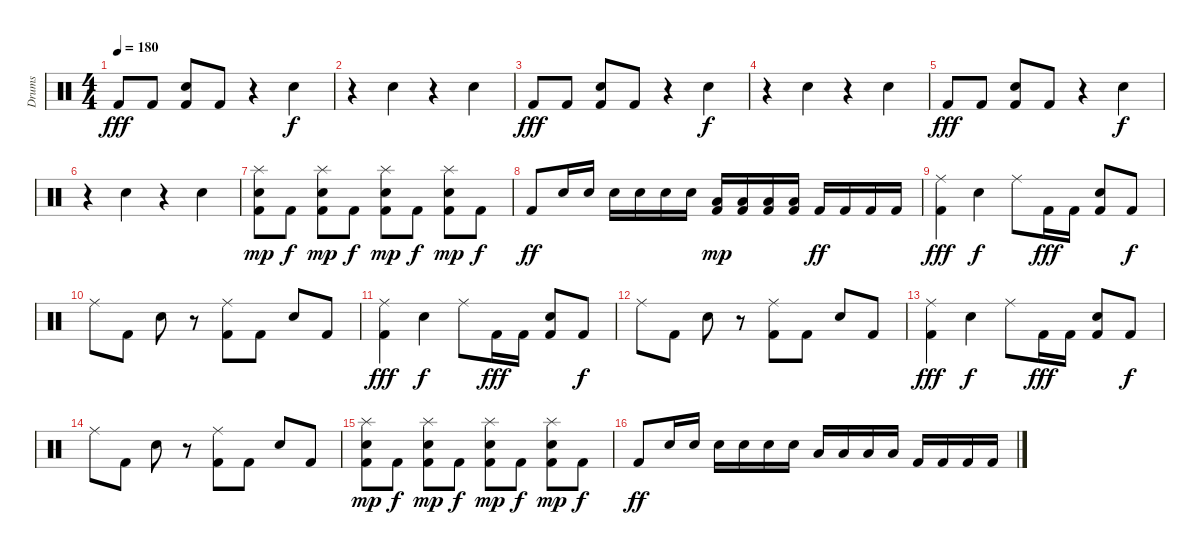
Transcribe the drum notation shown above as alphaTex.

\track ("Drums" "Drums") {instrument percussion}
\staff {score}
\articulation defaults
\ts (4 4)
\tempo 180
\clef neutral
\ks c "Kick (hit) 2".8{dy fff} "Kick (hit) 2".8
("Snare (hit) 2" "Kick (hit) 2").8 "Kick (hit) 2".8 r.4 "Snare (hit) 2".4{dy f} |
r.4 "Snare (hit) 2".4 r.4 "Snare (hit) 2".4 |
"Kick (hit) 2".8{dy fff} "Kick (hit) 2".8 ("Snare (hit) 2" "Kick (hit) 2").8 "Kick (hit) 2".8 r.4 "Snare (hit) 2".4{dy f} |
r.4 "Snare (hit) 2".4 r.4 "Snare (hit) 2".4 |
"Kick (hit) 2".8{dy fff} "Kick (hit) 2".8 ("Snare (hit) 2" "Kick (hit) 2").8 "Kick (hit) 2".8 r.4 "Snare (hit) 2".4{dy f} |
r.4 "Snare (hit) 2".4 r.4 "Snare (hit) 2".4 |
("Splash (hit)" "Snare (hit) 2" "Kick (hit) 2").8{dy mp} "Kick (hit) 2".8{dy f} ("Splash (hit)" "Snare (hit) 2" "Kick (hit) 2").8{dy mp} "Kick (hit) 2".8{dy f} ("Splash (hit)" "Snare (hit) 2" "Kick (hit) 2").8{dy mp} "Kick (hit) 2".8{dy f} ("Splash (hit)" "Snare (hit) 2" "Kick (hit) 2").8{dy mp} "Kick (hit) 2".8{dy f} |
"Kick (hit) 2".8{dy ff} "Snare (hit) 2".16 "Snare (hit) 2".16 "Snare (hit) 2".16 "Snare (hit) 2".16 "Snare (hit) 2".16 "Snare (hit) 2".16 ("Low Tom (hit)" "Kick (hit) 2").16{dy mp} ("Low Tom (hit)" "Kick (hit) 2").16 ("Low Tom (hit)" "Kick (hit) 2").16 ("Low Tom (hit)" "Kick (hit) 2").16 "Kick (hit) 2".16{dy ff} "Kick (hit) 2".16 "Kick (hit) 2".16 "Kick (hit) 2".16 |
("Ride (middle)" "Kick (hit) 2").4{dy fff} "Snare (hit) 2".4{dy f} "Ride (middle)".8 "Kick (hit) 2".16{dy fff} "Kick (hit) 2".16 ("Snare (hit) 2" "Kick (hit) 2").8 "Kick (hit) 2".8{dy f} |
"Ride (middle)".8 "Kick (hit) 2".8 "Snare (hit) 2".8 r.8 ("Ride (middle)" "Kick (hit) 2").8 "Kick (hit) 2".8 "Snare (hit) 2".8 "Kick (hit) 2".8 |
("Ride (middle)" "Kick (hit) 2").4{dy fff} "Snare (hit) 2".4{dy f} "Ride (middle)".8 "Kick (hit) 2".16{dy fff} "Kick (hit) 2".16 ("Snare (hit) 2" "Kick (hit) 2").8 "Kick (hit) 2".8{dy f} |
"Ride (middle)".8 "Kick (hit) 2".8 "Snare (hit) 2".8 r.8 ("Ride (middle)" "Kick (hit) 2").8 "Kick (hit) 2".8 "Snare (hit) 2".8 "Kick (hit) 2".8 |
("Ride (middle)" "Kick (hit) 2").4{dy fff} "Snare (hit) 2".4{dy f} "Ride (middle)".8 "Kick (hit) 2".16{dy fff} "Kick (hit) 2".16 ("Snare (hit) 2" "Kick (hit) 2").8 "Kick (hit) 2".8{dy f} |
"Ride (middle)".8 "Kick (hit) 2".8 "Snare (hit) 2".8 r.8 ("Ride (middle)" "Kick (hit) 2").8 "Kick (hit) 2".8 "Snare (hit) 2".8 "Kick (hit) 2".8 |
("Splash (hit)" "Snare (hit) 2" "Kick (hit) 2").8{dy mp} "Kick (hit) 2".8{dy f} ("Splash (hit)" "Snare (hit) 2" "Kick (hit) 2").8{dy mp} "Kick (hit) 2".8{dy f} ("Splash (hit)" "Snare (hit) 2" "Kick (hit) 2").8{dy mp} "Kick (hit) 2".8{dy f} ("Splash (hit)" "Snare (hit) 2" "Kick (hit) 2").8{dy mp} "Kick (hit) 2".8{dy f} |
"Kick (hit) 2".8{dy ff} "Snare (hit) 2".16 "Snare (hit) 2".16 "Snare (hit) 2".16 "Snare (hit) 2".16 "Snare (hit) 2".16 "Snare (hit) 2".16 "Low Tom (hit)".16 "Low Tom (hit)".16 "Low Tom (hit)".16 "Low Tom (hit)".16 "Kick (hit) 2".16 "Kick (hit) 2".16 "Kick (hit) 2".16 "Kick (hit) 2".16
